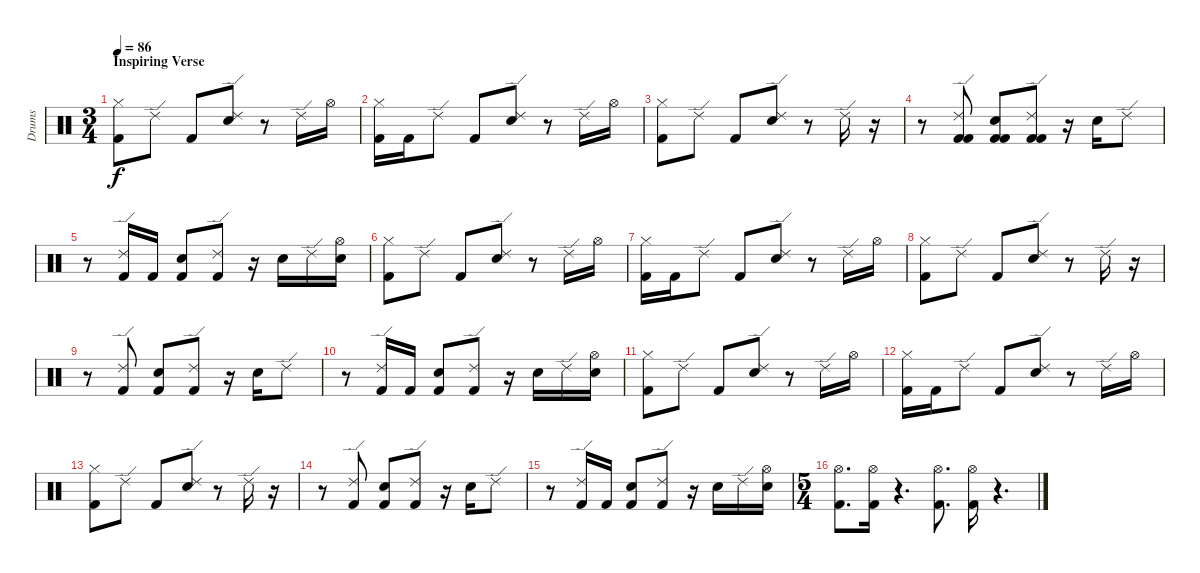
\track ("Drums" "Drums") {instrument percussion}
\staff {score}
\articulation defaults
\ts (3 4)
\section ("" "Inspiring Verse")
\tempo 86
\clef neutral
\ks c
("Hi-Hat (closed)" "Kick (hit) 2").8{dy f} "Ride (edge) 2".8 "Kick (hit) 2".8 ("Ride (edge) 2" "Electric Snare (hit)").8 r.8 "Ride (edge) 2".16 "Hi-Hat (open)".16 |
("Hi-Hat (closed)" "Kick (hit) 2").16 "Kick (hit) 2".16 "Ride (edge) 2".8 "Kick (hit) 2".8 ("Ride (edge) 2" "Electric Snare (hit)").8 r.8 "Ride (edge) 2".16 "Hi-Hat (open)".16 |
("Hi-Hat (closed)" "Kick (hit) 2").8 "Ride (edge) 2".8 "Kick (hit) 2".8 ("Ride (edge) 2" "Electric Snare (hit)").8 r.8 "Ride (edge) 2".16 r.16 |
r.8 ("Ride (edge) 2" "Kick (hit) 2" "Kick (hit) 2").8 ("Electric Snare (hit)" "Kick (hit) 2" "Kick (hit) 2").8 ("Ride (edge) 2" "Kick (hit) 2" "Kick (hit) 2").8 r.16 "Electric Snare (hit)".16 "Ride (edge) 2".8 |
r.8 ("Ride (edge) 2" "Kick (hit) 2").16 "Kick (hit) 2".16 ("Electric Snare (hit)" "Kick (hit) 2").8 ("Ride (edge) 2" "Kick (hit) 2").8 r.16 "Electric Snare (hit)".16 "Ride (edge) 2".16 ("Hi-Hat (open)" "Electric Snare (hit)").16 |
("Hi-Hat (closed)" "Kick (hit) 2").8 "Ride (edge) 2".8 "Kick (hit) 2".8 ("Ride (edge) 2" "Electric Snare (hit)").8 r.8 "Ride (edge) 2".16 "Hi-Hat (open)".16 |
("Hi-Hat (closed)" "Kick (hit) 2").16 "Kick (hit) 2".16 "Ride (edge) 2".8 "Kick (hit) 2".8 ("Ride (edge) 2" "Electric Snare (hit)").8 r.8 "Ride (edge) 2".16 "Hi-Hat (open)".16 |
("Hi-Hat (closed)" "Kick (hit) 2").8 "Ride (edge) 2".8 "Kick (hit) 2".8 ("Ride (edge) 2" "Electric Snare (hit)").8 r.8 "Ride (edge) 2".16 r.16 |
r.8 ("Ride (edge) 2" "Kick (hit) 2").8 ("Electric Snare (hit)" "Kick (hit) 2").8 ("Ride (edge) 2" "Kick (hit) 2").8 r.16 "Electric Snare (hit)".16 "Ride (edge) 2".8 |
r.8 ("Ride (edge) 2" "Kick (hit) 2").16 "Kick (hit) 2".16 ("Electric Snare (hit)" "Kick (hit) 2").8 ("Ride (edge) 2" "Kick (hit) 2").8 r.16 "Electric Snare (hit)".16 "Ride (edge) 2".16 ("Hi-Hat (open)" "Electric Snare (hit)").16 |
("Hi-Hat (closed)" "Kick (hit) 2").8 "Ride (edge) 2".8 "Kick (hit) 2".8 ("Ride (edge) 2" "Electric Snare (hit)").8 r.8 "Ride (edge) 2".16 "Hi-Hat (open)".16 |
("Hi-Hat (closed)" "Kick (hit) 2").16 "Kick (hit) 2".16 "Ride (edge) 2".8 "Kick (hit) 2".8 ("Ride (edge) 2" "Electric Snare (hit)").8 r.8 "Ride (edge) 2".16 "Hi-Hat (open)".16 |
("Hi-Hat (closed)" "Kick (hit) 2").8 "Ride (edge) 2".8 "Kick (hit) 2".8 ("Ride (edge) 2" "Electric Snare (hit)").8 r.8 "Ride (edge) 2".16 r.16 |
r.8 ("Ride (edge) 2" "Kick (hit) 2").8 ("Electric Snare (hit)" "Kick (hit) 2").8 ("Ride (edge) 2" "Kick (hit) 2").8 r.16 "Electric Snare (hit)".16 "Ride (edge) 2".8 |
r.8 ("Ride (edge) 2" "Kick (hit) 2").16 "Kick (hit) 2".16 ("Electric Snare (hit)" "Kick (hit) 2").8 ("Ride (edge) 2" "Kick (hit) 2").8 r.16 "Electric Snare (hit)".16 "Ride (edge) 2".16 ("Hi-Hat (open)" "Electric Snare (hit)").16 |
\ts (5 4)
("Hi-Hat (open)" "Kick (hit) 2").8{d} ("Hi-Hat (open)" "Kick (hit) 2").16 r.4{d} ("Hi-Hat (open)" "Kick (hit) 2").8{d} ("Hi-Hat (open)" "Kick (hit) 2").16 r.4{d}
